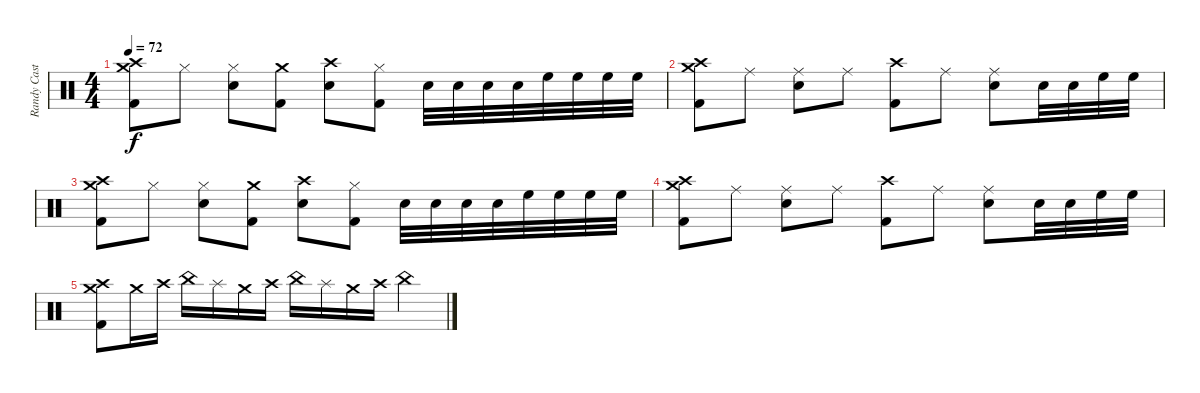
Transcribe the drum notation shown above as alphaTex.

\track ("Randy Castillo" "Randy Cast") {instrument percussion}
\staff {score}
\articulation defaults
\ts (4 4)
\tempo 72
\clef neutral
\ks c
("Crash medium (hit)" "Crash high (hit)" "Kick (hit) 2").8{dy f} "Hi-Hat (closed)".8 ("Hi-Hat (closed)" "Snare (hit) 2").8 ("Crash medium (hit)" "Kick (hit) 2").8 ("Crash high (hit)" "Snare (hit) 2").8 ("Hi-Hat (closed)" "Kick (hit) 2").8 "Snare (hit) 2".32 "Snare (hit) 2".32 "Snare (hit) 2".32 "Snare (hit) 2".32 "High Floor Tom (hit)".32 "High Floor Tom (hit)".32 "High Floor Tom (hit)".32 "High Floor Tom (hit)".32 |
("Crash medium (hit)" "Crash high (hit)" "Kick (hit) 2").8 "Ride (middle)".8 ("Ride (middle)" "Snare (hit) 2").8 "Ride (middle)".8 ("Crash high (hit)" "Kick (hit) 2").8 "Ride (middle)".8 ("Ride (middle)" "Snare (hit) 2").8 "Snare (hit) 2".32 "Snare (hit) 2".32 "High Floor Tom (hit)".32 "High Floor Tom (hit)".32 |
("Crash medium (hit)" "Crash high (hit)" "Kick (hit) 2").8 "Hi-Hat (closed)".8 ("Hi-Hat (closed)" "Snare (hit) 2").8 ("Crash medium (hit)" "Kick (hit) 2").8 ("Crash high (hit)" "Snare (hit) 2").8 ("Hi-Hat (closed)" "Kick (hit) 2").8 "Snare (hit) 2".32 "Snare (hit) 2".32 "Snare (hit) 2".32 "Snare (hit) 2".32 "High Floor Tom (hit)".32 "High Floor Tom (hit)".32 "High Floor Tom (hit)".32 "High Floor Tom (hit)".32 |
("Crash medium (hit)" "Crash high (hit)" "Kick (hit) 2").8 "Ride (middle)".8 ("Ride (middle)" "Snare (hit) 2").8 "Ride (middle)".8 ("Crash high (hit)" "Kick (hit) 2").8 "Ride (middle)".8 ("Ride (middle)" "Snare (hit) 2").8 "Snare (hit) 2".32 "Snare (hit) 2".32 "High Floor Tom (hit)".32 "High Floor Tom (hit)".32 |
("Crash medium (hit)" "Crash high (hit)" "Kick (hit) 2").8 "Crash medium (hit)".16 "Crash high (hit)".16 "China (hit)".16 "Splash (hit)".16 "Crash medium (hit)".16 "Crash high (hit)".16 "China (hit)".16 "Splash (hit)".16 "Crash medium (hit)".16 "Crash high (hit)".16 "China (hit)".4
